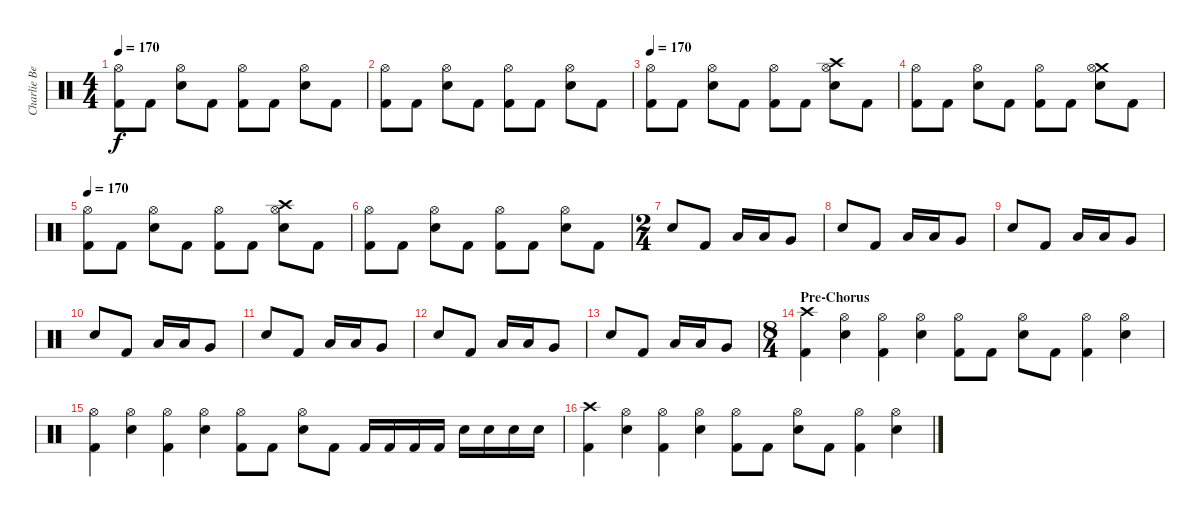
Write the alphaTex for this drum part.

\track ("Charlie Benante" "Charlie Be") {instrument percussion}
\staff {score}
\articulation defaults
\ts (4 4)
\tempo 170
\clef neutral
\ks c
("Hi-Hat (open)" "Kick (hit) 2").8{dy f} "Kick (hit) 2".8 ("Hi-Hat (open)" "Electric Snare (hit)").8 "Kick (hit) 2".8 ("Hi-Hat (open)" "Kick (hit) 2").8 "Kick (hit) 2".8 ("Hi-Hat (open)" "Electric Snare (hit)").8 "Kick (hit) 2".8 |
("Hi-Hat (open)" "Kick (hit) 2").8 "Kick (hit) 2".8 ("Hi-Hat (open)" "Electric Snare (hit)").8 "Kick (hit) 2".8 ("Hi-Hat (open)" "Kick (hit) 2").8 "Kick (hit) 2".8 ("Hi-Hat (open)" "Electric Snare (hit)").8 "Kick (hit) 2".8 |
\tempo 170
("Hi-Hat (open)" "Kick (hit) 2").8 "Kick (hit) 2".8 ("Hi-Hat (open)" "Electric Snare (hit)").8 "Kick (hit) 2".8 ("Hi-Hat (open)" "Kick (hit) 2").8 "Kick (hit) 2".8 ("Crash high (hit)" "Hi-Hat (open)" "Electric Snare (hit)").8 "Kick (hit) 2".8 |
("Hi-Hat (open)" "Kick (hit) 2").8 "Kick (hit) 2".8 ("Hi-Hat (open)" "Electric Snare (hit)").8 "Kick (hit) 2".8 ("Hi-Hat (open)" "Kick (hit) 2").8 "Kick (hit) 2".8 ("Crash medium (hit)" "Hi-Hat (open)" "Electric Snare (hit)").8 "Kick (hit) 2".8 |
\tempo 170
("Hi-Hat (open)" "Kick (hit) 2").8 "Kick (hit) 2".8 ("Hi-Hat (open)" "Electric Snare (hit)").8 "Kick (hit) 2".8 ("Hi-Hat (open)" "Kick (hit) 2").8 "Kick (hit) 2".8 ("Crash high (hit)" "Hi-Hat (open)" "Electric Snare (hit)").8 "Kick (hit) 2".8 |
("Hi-Hat (open)" "Kick (hit) 2").8 "Kick (hit) 2".8 ("Hi-Hat (open)" "Electric Snare (hit)").8 "Kick (hit) 2".8 ("Hi-Hat (open)" "Kick (hit) 2").8 "Kick (hit) 2".8 ("Hi-Hat (open)" "Electric Snare (hit)").8 "Kick (hit) 2".8 |
\ts (2 4)
"Electric Snare (hit)".8 "Kick (hit) 2".8 "Low Tom (hit)".16 "Low Tom (hit)".16 "Very Low Tom (hit)".8 |
"Electric Snare (hit)".8 "Kick (hit) 2".8 "Low Tom (hit)".16 "Low Tom (hit)".16 "Very Low Tom (hit)".8 |
"Electric Snare (hit)".8 "Kick (hit) 2".8 "Low Tom (hit)".16 "Low Tom (hit)".16 "Very Low Tom (hit)".8 |
"Electric Snare (hit)".8 "Kick (hit) 2".8 "Low Tom (hit)".16 "Low Tom (hit)".16 "Very Low Tom (hit)".8 |
"Electric Snare (hit)".8 "Kick (hit) 2".8 "Low Tom (hit)".16 "Low Tom (hit)".16 "Very Low Tom (hit)".8 |
"Electric Snare (hit)".8 "Kick (hit) 2".8 "Low Tom (hit)".16 "Low Tom (hit)".16 "Very Low Tom (hit)".8 |
"Electric Snare (hit)".8 "Kick (hit) 2".8 "Low Tom (hit)".16 "Low Tom (hit)".16 "Very Low Tom (hit)".8 |
\ts (8 4)
\section ("" "Pre-Chorus")
("Crash high (hit)" "Kick (hit) 2").4 ("Hi-Hat (open)" "Electric Snare (hit)").4 ("Hi-Hat (open)" "Kick (hit) 2").4 ("Hi-Hat (open)" "Electric Snare (hit)").4 ("Hi-Hat (open)" "Kick (hit) 2").8 "Kick (hit) 2".8 ("Hi-Hat (open)" "Electric Snare (hit)").8 "Kick (hit) 2".8 ("Hi-Hat (open)" "Kick (hit) 2").4 ("Hi-Hat (open)" "Electric Snare (hit)").4 |
("Hi-Hat (open)" "Kick (hit) 2").4 ("Hi-Hat (open)" "Electric Snare (hit)").4 ("Hi-Hat (open)" "Kick (hit) 2").4 ("Hi-Hat (open)" "Electric Snare (hit)").4 ("Hi-Hat (open)" "Kick (hit) 2").8 "Kick (hit) 2".8 ("Hi-Hat (open)" "Electric Snare (hit)").8 "Kick (hit) 2".8 "Kick (hit) 2".16 "Kick (hit) 2".16 "Kick (hit) 2".16 "Kick (hit) 2".16 "Electric Snare (hit)".16 "Electric Snare (hit)".16 "Electric Snare (hit)".16 "Electric Snare (hit)".16 |
("Crash high (hit)" "Kick (hit) 2").4 ("Hi-Hat (open)" "Electric Snare (hit)").4 ("Hi-Hat (open)" "Kick (hit) 2").4 ("Hi-Hat (open)" "Electric Snare (hit)").4 ("Hi-Hat (open)" "Kick (hit) 2").8 "Kick (hit) 2".8 ("Hi-Hat (open)" "Electric Snare (hit)").8 "Kick (hit) 2".8 ("Hi-Hat (open)" "Kick (hit) 2").4 ("Hi-Hat (open)" "Electric Snare (hit)").4
